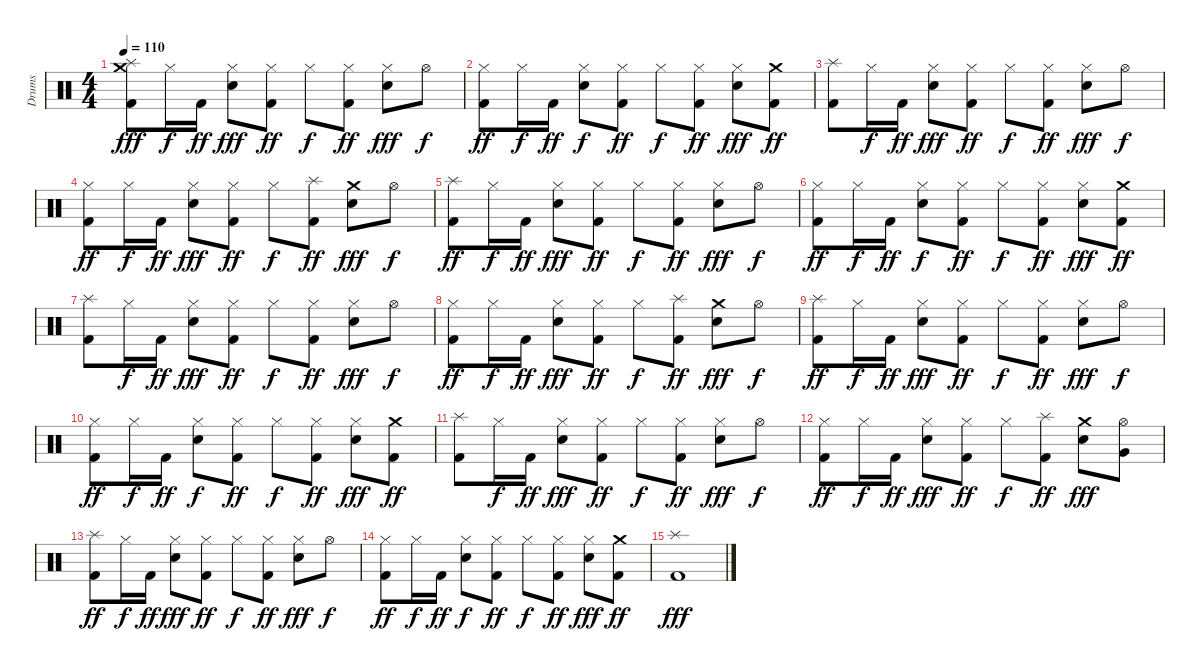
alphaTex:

\track ("Drums" "Drums") {instrument percussion}
\staff {score}
\articulation defaults
\ts (4 4)
\tempo 110
\clef neutral
\ks c
("Splash (hit)" "Crash medium (hit)" "Kick (hit) 2").8{dy fff} "Hi-Hat (closed)".16{dy f} "Kick (hit) 2".16{dy ff} ("Hi-Hat (closed)" "Electric Snare (hit)").8{dy fff} ("Hi-Hat (closed)" "Kick (hit) 2").8{dy ff} "Hi-Hat (closed)".8{dy f} ("Hi-Hat (closed)" "Kick (hit) 2").8{dy ff} ("Hi-Hat (closed)" "Electric Snare (hit)").8{dy fff} "Hi-Hat (open)".8{dy f} |
("Hi-Hat (closed)" "Kick (hit) 2").8{dy ff} "Hi-Hat (closed)".16{dy f} "Kick (hit) 2".16{dy ff} ("Hi-Hat (closed)" "Electric Snare (hit)").8{dy f} ("Hi-Hat (closed)" "Kick (hit) 2").8{dy ff} "Hi-Hat (closed)".8{dy f} ("Hi-Hat (closed)" "Kick (hit) 2").8{dy ff} ("Hi-Hat (closed)" "Electric Snare (hit)").8{dy fff} ("Crash medium (hit)" "Kick (hit) 2").8{dy ff} |
("Splash (hit)" "Kick (hit) 2").8 "Hi-Hat (closed)".16{dy f} "Kick (hit) 2".16{dy ff} ("Hi-Hat (closed)" "Electric Snare (hit)").8{dy fff} ("Hi-Hat (closed)" "Kick (hit) 2").8{dy ff} "Hi-Hat (closed)".8{dy f} ("Hi-Hat (closed)" "Kick (hit) 2").8{dy ff} ("Hi-Hat (closed)" "Electric Snare (hit)").8{dy fff} "Hi-Hat (open)".8{dy f} |
("Hi-Hat (closed)" "Kick (hit) 2").8{dy ff} "Hi-Hat (closed)".16{dy f} "Kick (hit) 2".16{dy ff} ("Hi-Hat (closed)" "Electric Snare (hit)").8{dy fff} ("Hi-Hat (closed)" "Kick (hit) 2").8{dy ff} "Hi-Hat (closed)".8{dy f} ("Splash (hit)" "Kick (hit) 2").8{dy ff} ("Crash medium (hit)" "Electric Snare (hit)").8{dy fff} "Hi-Hat (open)".8{dy f} |
("Splash (hit)" "Kick (hit) 2").8{dy ff} "Hi-Hat (closed)".16{dy f} "Kick (hit) 2".16{dy ff} ("Hi-Hat (closed)" "Electric Snare (hit)").8{dy fff} ("Hi-Hat (closed)" "Kick (hit) 2").8{dy ff} "Hi-Hat (closed)".8{dy f} ("Hi-Hat (closed)" "Kick (hit) 2").8{dy ff} ("Hi-Hat (closed)" "Electric Snare (hit)").8{dy fff} "Hi-Hat (open)".8{dy f} |
("Hi-Hat (closed)" "Kick (hit) 2").8{dy ff} "Hi-Hat (closed)".16{dy f} "Kick (hit) 2".16{dy ff} ("Hi-Hat (closed)" "Electric Snare (hit)").8{dy f} ("Hi-Hat (closed)" "Kick (hit) 2").8{dy ff} "Hi-Hat (closed)".8{dy f} ("Hi-Hat (closed)" "Kick (hit) 2").8{dy ff} ("Hi-Hat (closed)" "Electric Snare (hit)").8{dy fff} ("Crash medium (hit)" "Kick (hit) 2").8{dy ff} |
("Splash (hit)" "Kick (hit) 2").8 "Hi-Hat (closed)".16{dy f} "Kick (hit) 2".16{dy ff} ("Hi-Hat (closed)" "Electric Snare (hit)").8{dy fff} ("Hi-Hat (closed)" "Kick (hit) 2").8{dy ff} "Hi-Hat (closed)".8{dy f} ("Hi-Hat (closed)" "Kick (hit) 2").8{dy ff} ("Hi-Hat (closed)" "Electric Snare (hit)").8{dy fff} "Hi-Hat (open)".8{dy f} |
("Hi-Hat (closed)" "Kick (hit) 2").8{dy ff} "Hi-Hat (closed)".16{dy f} "Kick (hit) 2".16{dy ff} ("Hi-Hat (closed)" "Electric Snare (hit)").8{dy fff} ("Hi-Hat (closed)" "Kick (hit) 2").8{dy ff} "Hi-Hat (closed)".8{dy f} ("Splash (hit)" "Kick (hit) 2").8{dy ff} ("Crash medium (hit)" "Electric Snare (hit)").8{dy fff} "Hi-Hat (open)".8{dy f} |
("Splash (hit)" "Kick (hit) 2").8{dy ff} "Hi-Hat (closed)".16{dy f} "Kick (hit) 2".16{dy ff} ("Hi-Hat (closed)" "Electric Snare (hit)").8{dy fff} ("Hi-Hat (closed)" "Kick (hit) 2").8{dy ff} "Hi-Hat (closed)".8{dy f} ("Hi-Hat (closed)" "Kick (hit) 2").8{dy ff} ("Hi-Hat (closed)" "Electric Snare (hit)").8{dy fff} "Hi-Hat (open)".8{dy f} |
("Hi-Hat (closed)" "Kick (hit) 2").8{dy ff} "Hi-Hat (closed)".16{dy f} "Kick (hit) 2".16{dy ff} ("Hi-Hat (closed)" "Electric Snare (hit)").8{dy f} ("Hi-Hat (closed)" "Kick (hit) 2").8{dy ff} "Hi-Hat (closed)".8{dy f} ("Hi-Hat (closed)" "Kick (hit) 2").8{dy ff} ("Hi-Hat (closed)" "Electric Snare (hit)").8{dy fff} ("Crash medium (hit)" "Kick (hit) 2").8{dy ff} |
("Splash (hit)" "Kick (hit) 2").8 "Hi-Hat (closed)".16{dy f} "Kick (hit) 2".16{dy ff} ("Hi-Hat (closed)" "Electric Snare (hit)").8{dy fff} ("Hi-Hat (closed)" "Kick (hit) 2").8{dy ff} "Hi-Hat (closed)".8{dy f} ("Hi-Hat (closed)" "Kick (hit) 2").8{dy ff} ("Hi-Hat (closed)" "Electric Snare (hit)").8{dy fff} "Hi-Hat (open)".8{dy f} |
("Hi-Hat (closed)" "Kick (hit) 2").8{dy ff} "Hi-Hat (closed)".16{dy f} "Kick (hit) 2".16{dy ff} ("Hi-Hat (closed)" "Electric Snare (hit)").8{dy fff} ("Hi-Hat (closed)" "Kick (hit) 2").8{dy ff} "Hi-Hat (closed)".8{dy f} ("Splash (hit)" "Kick (hit) 2").8{dy ff} ("Crash medium (hit)" "Electric Snare (hit)").8{dy fff} ("Hi-Hat (open)" "Very Low Tom (hit)").8 |
("Splash (hit)" "Kick (hit) 2").8{dy ff} "Hi-Hat (closed)".16{dy f} "Kick (hit) 2".16{dy ff} ("Hi-Hat (closed)" "Electric Snare (hit)").8{dy fff} ("Hi-Hat (closed)" "Kick (hit) 2").8{dy ff} "Hi-Hat (closed)".8{dy f} ("Hi-Hat (closed)" "Kick (hit) 2").8{dy ff} ("Hi-Hat (closed)" "Electric Snare (hit)").8{dy fff} "Hi-Hat (open)".8{dy f} |
("Hi-Hat (closed)" "Kick (hit) 2").8{dy ff} "Hi-Hat (closed)".16{dy f} "Kick (hit) 2".16{dy ff} ("Hi-Hat (closed)" "Electric Snare (hit)").8{dy f} ("Hi-Hat (closed)" "Kick (hit) 2").8{dy ff} "Hi-Hat (closed)".8{dy f} ("Hi-Hat (closed)" "Kick (hit) 2").8{dy ff} ("Hi-Hat (closed)" "Electric Snare (hit)").8{dy fff} ("Crash medium (hit)" "Kick (hit) 2").8{dy ff} |
("Splash (hit)" "Kick (hit) 2").1{dy fff}
